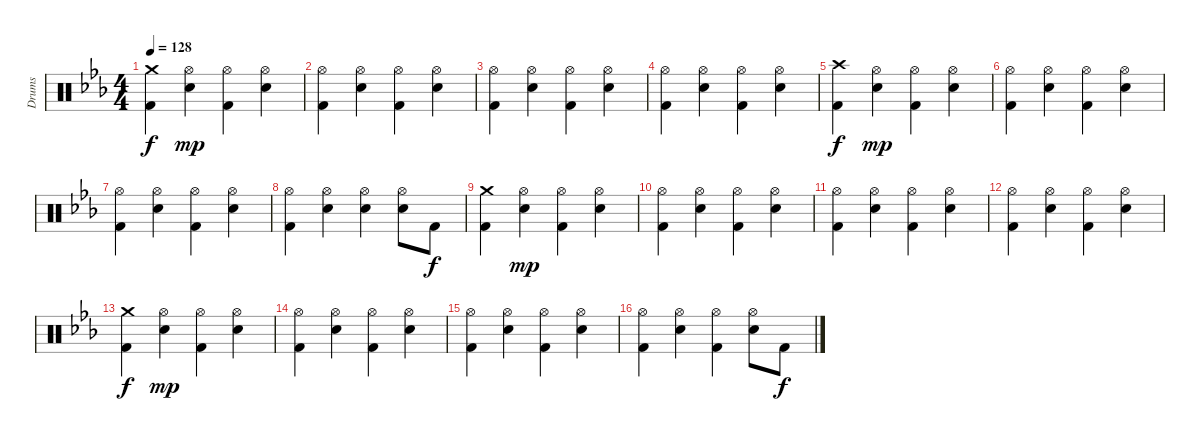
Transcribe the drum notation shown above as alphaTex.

\track ("Drums" "Drums") {instrument percussion}
\staff {score}
\articulation defaults
\ts (4 4)
\tempo 128
\clef neutral
\ks cminor
("Crash medium (hit)" "Kick (hit) 2").4{dy f} ("Hi-Hat (open)" "Electric Snare (hit)").4{dy mp} ("Hi-Hat (open)" "Kick (hit) 2").4 ("Hi-Hat (open)" "Electric Snare (hit)").4 |
("Hi-Hat (open)" "Kick (hit) 2").4 ("Hi-Hat (open)" "Electric Snare (hit)").4 ("Hi-Hat (open)" "Kick (hit) 2").4 ("Hi-Hat (open)" "Electric Snare (hit)").4 |
("Hi-Hat (open)" "Kick (hit) 2").4 ("Hi-Hat (open)" "Electric Snare (hit)").4 ("Hi-Hat (open)" "Kick (hit) 2").4 ("Hi-Hat (open)" "Electric Snare (hit)").4 |
("Hi-Hat (open)" "Kick (hit) 2").4 ("Hi-Hat (open)" "Electric Snare (hit)").4 ("Hi-Hat (open)" "Kick (hit) 2").4 ("Hi-Hat (open)" "Electric Snare (hit)").4 |
("Crash high (hit)" "Kick (hit) 2").4{dy f} ("Hi-Hat (open)" "Electric Snare (hit)").4{dy mp} ("Hi-Hat (open)" "Kick (hit) 2").4 ("Hi-Hat (open)" "Electric Snare (hit)").4 |
("Hi-Hat (open)" "Kick (hit) 2").4 ("Hi-Hat (open)" "Electric Snare (hit)").4 ("Hi-Hat (open)" "Kick (hit) 2").4 ("Hi-Hat (open)" "Electric Snare (hit)").4 |
("Hi-Hat (open)" "Kick (hit) 2").4 ("Hi-Hat (open)" "Electric Snare (hit)").4 ("Hi-Hat (open)" "Kick (hit) 2").4 ("Hi-Hat (open)" "Electric Snare (hit)").4 |
("Hi-Hat (open)" "Kick (hit) 2").4 ("Hi-Hat (open)" "Electric Snare (hit)").4 ("Hi-Hat (open)" "Electric Snare (hit)").4 ("Hi-Hat (open)" "Electric Snare (hit)").8 "Kick (hit) 2".8{dy f} |
("Crash medium (hit)" "Kick (hit) 2").4 ("Hi-Hat (open)" "Electric Snare (hit)").4{dy mp} ("Hi-Hat (open)" "Kick (hit) 2").4 ("Hi-Hat (open)" "Electric Snare (hit)").4 |
("Hi-Hat (open)" "Kick (hit) 2").4 ("Hi-Hat (open)" "Electric Snare (hit)").4 ("Hi-Hat (open)" "Kick (hit) 2").4 ("Hi-Hat (open)" "Electric Snare (hit)").4 |
("Hi-Hat (open)" "Kick (hit) 2").4 ("Hi-Hat (open)" "Electric Snare (hit)").4 ("Hi-Hat (open)" "Kick (hit) 2").4 ("Hi-Hat (open)" "Electric Snare (hit)").4 |
("Hi-Hat (open)" "Kick (hit) 2").4 ("Hi-Hat (open)" "Electric Snare (hit)").4 ("Hi-Hat (open)" "Kick (hit) 2").4 ("Hi-Hat (open)" "Electric Snare (hit)").4 |
("Crash medium (hit)" "Kick (hit) 2").4{dy f} ("Hi-Hat (open)" "Electric Snare (hit)").4{dy mp} ("Hi-Hat (open)" "Kick (hit) 2").4 ("Hi-Hat (open)" "Electric Snare (hit)").4 |
("Hi-Hat (open)" "Kick (hit) 2").4 ("Hi-Hat (open)" "Electric Snare (hit)").4 ("Hi-Hat (open)" "Kick (hit) 2").4 ("Hi-Hat (open)" "Electric Snare (hit)").4 |
("Hi-Hat (open)" "Kick (hit) 2").4 ("Hi-Hat (open)" "Electric Snare (hit)").4 ("Hi-Hat (open)" "Kick (hit) 2").4 ("Hi-Hat (open)" "Electric Snare (hit)").4 |
("Hi-Hat (open)" "Kick (hit) 2").4 ("Hi-Hat (open)" "Electric Snare (hit)").4 ("Hi-Hat (open)" "Kick (hit) 2").4 ("Hi-Hat (open)" "Electric Snare (hit)").8 "Kick (hit) 2".8{dy f}
